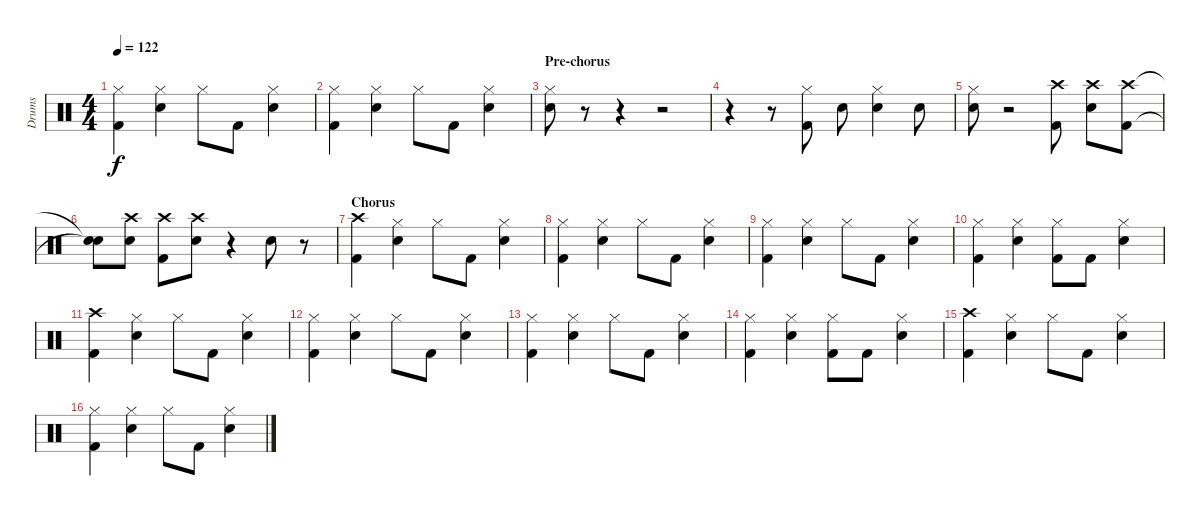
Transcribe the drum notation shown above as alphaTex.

\track ("Drums" "Drums") {instrument percussion}
\staff {score}
\articulation defaults
\ts (4 4)
\tempo 122
\clef neutral
\ks c
("Hi-Hat (closed)" "Kick (hit) 2").4{dy f} ("Hi-Hat (closed)" "Electric Snare (hit)").4 "Hi-Hat (closed)".8 "Kick (hit) 2".8 ("Hi-Hat (closed)" "Electric Snare (hit)").4 |
("Hi-Hat (closed)" "Kick (hit) 2").4 ("Hi-Hat (closed)" "Electric Snare (hit)").4 "Hi-Hat (closed)".8 "Kick (hit) 2".8 ("Hi-Hat (closed)" "Electric Snare (hit)").4 |
\section ("" "Pre-chorus")
("Hi-Hat (closed)" "Electric Snare (hit)").8 r.8 r.4 r.2 |
r.4 r.8 ("Hi-Hat (closed)" "Kick (hit) 2").8 "Electric Snare (hit)".8 ("Hi-Hat (closed)" "Electric Snare (hit)").4 "Electric Snare (hit)".8 |
("Hi-Hat (closed)" "Electric Snare (hit)").8 r.2 ("Crash high (hit)" "Kick (hit) 2").8 ("Crash high (hit)" "Electric Snare (hit)").8 ("Crash high (hit)" "Kick (hit) 2").8 |
("Snare (hit)"{t} "Snare (hit)"{t}).8 ("Crash high (hit)" "Electric Snare (hit)").8 ("Crash high (hit)" "Kick (hit) 2").8 ("Crash high (hit)" "Electric Snare (hit)").8 r.4 "Electric Snare (hit)".8 r.8 |
\section ("" "Chorus")
("Crash high (hit)" "Kick (hit) 2").4 ("Hi-Hat (closed)" "Electric Snare (hit)").4 "Hi-Hat (closed)".8 "Kick (hit) 2".8 ("Hi-Hat (closed)" "Electric Snare (hit)").4 |
("Hi-Hat (closed)" "Kick (hit) 2").4 ("Hi-Hat (closed)" "Electric Snare (hit)").4 "Hi-Hat (closed)".8 "Kick (hit) 2".8 ("Hi-Hat (closed)" "Electric Snare (hit)").4 |
("Hi-Hat (closed)" "Kick (hit) 2").4 ("Hi-Hat (closed)" "Electric Snare (hit)").4 "Hi-Hat (closed)".8 "Kick (hit) 2".8 ("Hi-Hat (closed)" "Electric Snare (hit)").4 |
("Hi-Hat (closed)" "Kick (hit) 2").4 ("Hi-Hat (closed)" "Electric Snare (hit)").4 ("Hi-Hat (closed)" "Kick (hit) 2").8 "Kick (hit) 2".8 ("Hi-Hat (closed)" "Electric Snare (hit)").4 |
("Crash high (hit)" "Kick (hit) 2").4 ("Hi-Hat (closed)" "Electric Snare (hit)").4 "Hi-Hat (closed)".8 "Kick (hit) 2".8 ("Hi-Hat (closed)" "Electric Snare (hit)").4 |
("Hi-Hat (closed)" "Kick (hit) 2").4 ("Hi-Hat (closed)" "Electric Snare (hit)").4 "Hi-Hat (closed)".8 "Kick (hit) 2".8 ("Hi-Hat (closed)" "Electric Snare (hit)").4 |
("Hi-Hat (closed)" "Kick (hit) 2").4 ("Hi-Hat (closed)" "Electric Snare (hit)").4 "Hi-Hat (closed)".8 "Kick (hit) 2".8 ("Hi-Hat (closed)" "Electric Snare (hit)").4 |
("Hi-Hat (closed)" "Kick (hit) 2").4 ("Hi-Hat (closed)" "Electric Snare (hit)").4 ("Hi-Hat (closed)" "Kick (hit) 2").8 "Kick (hit) 2".8 ("Hi-Hat (closed)" "Electric Snare (hit)").4 |
("Crash high (hit)" "Kick (hit) 2").4 ("Hi-Hat (closed)" "Electric Snare (hit)").4 "Hi-Hat (closed)".8 "Kick (hit) 2".8 ("Hi-Hat (closed)" "Electric Snare (hit)").4 |
("Hi-Hat (closed)" "Kick (hit) 2").4 ("Hi-Hat (closed)" "Electric Snare (hit)").4 "Hi-Hat (closed)".8 "Kick (hit) 2".8 ("Hi-Hat (closed)" "Electric Snare (hit)").4
